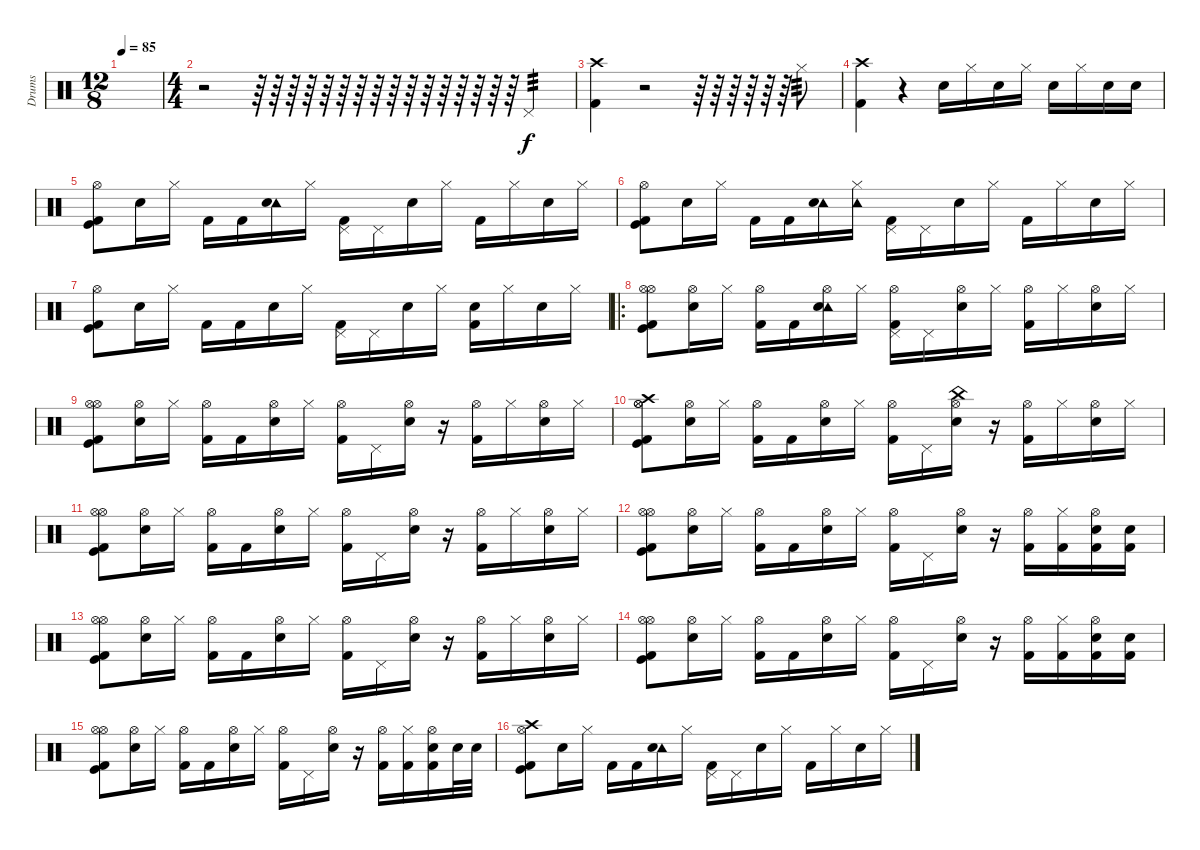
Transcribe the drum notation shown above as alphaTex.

\track ("Drums" "Drums") {instrument percussion}
\staff {score}
\articulation defaults
\ts (12 8)
\tempo 85
\clef neutral
\ks c
|
\ts (4 4)
r.2 r.64 r.64 r.64 r.64 r.64 r.64 r.64 r.64 r.64 r.64 r.64 r.64 r.64 r.64 r.64 r.64 "Pedal Hi-Hat (hit)".4{tp 3} |
("Crash high (hit)" "Kick (hit) 2").4 r.2 r.64 r.64 r.64 r.64 r.64 r.64 "Hi-Hat (closed)".8{tp 3} |
("Crash high (hit)" "Kick (hit) 2").4 r.4 "Snare (hit) 2".16 "Hi-Hat (closed)".16 "Snare (hit) 2".16 "Hi-Hat (closed)".16 "Snare (hit) 2".16 "Hi-Hat (closed)".16 "Snare (hit) 2".16 "Snare (hit) 2".16 |
("Hi-Hat (open)" "Kick (hit) 2" "Kick (hit)").8 "Snare (hit) 2".16 "Hi-Hat (closed)".16 "Kick (hit) 2".16 "Kick (hit) 2".16 ("Tambourine (hit)" "Snare (hit) 2").16 "Hi-Hat (closed)".16 ("Pedal Hi-Hat (hit)" "Kick (hit) 2").16 "Pedal Hi-Hat (hit)".16 "Snare (hit) 2".16 "Hi-Hat (closed)".16 "Kick (hit) 2".16 "Hi-Hat (closed)".16 "Snare (hit) 2".16 "Hi-Hat (closed)".16 |
("Hi-Hat (open)" "Kick (hit) 2" "Kick (hit)").8 "Snare (hit) 2".16 "Hi-Hat (closed)".16 "Kick (hit) 2".16 "Kick (hit) 2".16 ("Tambourine (hit)" "Snare (hit) 2").16 ("Tambourine (hit)" "Hi-Hat (closed)").16 ("Pedal Hi-Hat (hit)" "Kick (hit) 2").16 "Pedal Hi-Hat (hit)".16 "Snare (hit) 2".16 "Hi-Hat (closed)".16 "Kick (hit) 2".16 "Hi-Hat (closed)".16 "Snare (hit) 2".16 "Hi-Hat (closed)".16 |
("Hi-Hat (open)" "Kick (hit) 2" "Kick (hit)").8 "Snare (hit) 2".16 "Hi-Hat (closed)".16 "Kick (hit) 2".16 "Kick (hit) 2".16 "Snare (hit) 2".16 "Hi-Hat (closed)".16 ("Pedal Hi-Hat (hit)" "Kick (hit) 2").16 "Pedal Hi-Hat (hit)".16 "Snare (hit) 2".16 "Hi-Hat (closed)".16 ("Snare (hit) 2" "Kick (hit) 2").16 "Hi-Hat (closed)".16 "Snare (hit) 2".16 "Hi-Hat (closed)".16 |
\ro
("Hi-Hat (open)" "Hi-Hat (open)" "Kick (hit) 2" "Kick (hit)").8 ("Hi-Hat (open)" "Snare (hit) 2").16 "Hi-Hat (closed)".16 ("Hi-Hat (open)" "Kick (hit) 2").16 "Kick (hit) 2".16 ("Hi-Hat (open)" "Tambourine (hit)" "Snare (hit) 2").16 "Hi-Hat (closed)".16 ("Hi-Hat (open)" "Pedal Hi-Hat (hit)" "Kick (hit) 2").16 "Pedal Hi-Hat (hit)".16 ("Hi-Hat (open)" "Snare (hit) 2").16 "Hi-Hat (closed)".16 ("Hi-Hat (open)" "Kick (hit) 2").16 "Hi-Hat (closed)".16 ("Hi-Hat (open)" "Snare (hit) 2").16 "Hi-Hat (closed)".16 |
("Hi-Hat (open)" "Hi-Hat (open)" "Kick (hit) 2" "Kick (hit)").8 ("Hi-Hat (open)" "Snare (hit) 2").16 "Hi-Hat (closed)".16 ("Hi-Hat (open)" "Kick (hit) 2").16 "Kick (hit) 2".16 ("Hi-Hat (open)" "Snare (hit) 2").16 "Hi-Hat (closed)".16 ("Hi-Hat (open)" "Kick (hit) 2").16 "Pedal Hi-Hat (hit)".16 ("Hi-Hat (open)" "Snare (hit) 2").16 r.16 ("Hi-Hat (open)" "Kick (hit) 2").16 "Hi-Hat (closed)".16 ("Hi-Hat (open)" "Snare (hit) 2").16 "Hi-Hat (closed)".16 |
("Hi-Hat (open)" "Crash high (hit)" "Hi-Hat (open)" "Kick (hit) 2" "Kick (hit)").8 ("Hi-Hat (open)" "Snare (hit) 2").16 "Hi-Hat (closed)".16 ("Hi-Hat (open)" "Kick (hit) 2").16 "Kick (hit) 2".16 ("Hi-Hat (open)" "Snare (hit) 2").16 "Hi-Hat (closed)".16 ("Hi-Hat (open)" "Kick (hit) 2").16 "Pedal Hi-Hat (hit)".16 ("Hi-Hat (open)" "China (hit)" "Snare (hit) 2").16 r.16 ("Hi-Hat (open)" "Kick (hit) 2").16 "Hi-Hat (closed)".16 ("Hi-Hat (open)" "Snare (hit) 2").16 "Hi-Hat (closed)".16 |
("Hi-Hat (open)" "Hi-Hat (open)" "Kick (hit) 2" "Kick (hit)").8 ("Hi-Hat (open)" "Snare (hit) 2").16 "Hi-Hat (closed)".16 ("Hi-Hat (open)" "Kick (hit) 2").16 "Kick (hit) 2".16 ("Hi-Hat (open)" "Snare (hit) 2").16 "Hi-Hat (closed)".16 ("Hi-Hat (open)" "Kick (hit) 2").16 "Pedal Hi-Hat (hit)".16 ("Hi-Hat (open)" "Snare (hit) 2").16 r.16 ("Hi-Hat (open)" "Kick (hit) 2").16 "Hi-Hat (closed)".16 ("Hi-Hat (open)" "Snare (hit) 2").16 "Hi-Hat (closed)".16 |
("Hi-Hat (open)" "Hi-Hat (open)" "Kick (hit) 2" "Kick (hit)").8 ("Hi-Hat (open)" "Snare (hit) 2").16 "Hi-Hat (closed)".16 ("Hi-Hat (open)" "Kick (hit) 2").16 "Kick (hit) 2".16 ("Hi-Hat (open)" "Snare (hit) 2").16 "Hi-Hat (closed)".16 ("Hi-Hat (open)" "Kick (hit) 2").16 "Pedal Hi-Hat (hit)".16 ("Hi-Hat (open)" "Snare (hit) 2").16 r.16 ("Hi-Hat (open)" "Kick (hit) 2").16 ("Hi-Hat (closed)" "Kick (hit) 2").16 ("Hi-Hat (open)" "Snare (hit) 2" "Kick (hit) 2").16 ("Snare (hit) 2" "Kick (hit) 2").16 |
("Hi-Hat (open)" "Hi-Hat (open)" "Kick (hit) 2" "Kick (hit)").8 ("Hi-Hat (open)" "Snare (hit) 2").16 "Hi-Hat (closed)".16 ("Hi-Hat (open)" "Kick (hit) 2").16 "Kick (hit) 2".16 ("Hi-Hat (open)" "Snare (hit) 2").16 "Hi-Hat (closed)".16 ("Hi-Hat (open)" "Kick (hit) 2").16 "Pedal Hi-Hat (hit)".16 ("Hi-Hat (open)" "Snare (hit) 2").16 r.16 ("Hi-Hat (open)" "Kick (hit) 2").16 "Hi-Hat (closed)".16 ("Hi-Hat (open)" "Snare (hit) 2").16 "Hi-Hat (closed)".16 |
("Hi-Hat (open)" "Hi-Hat (open)" "Kick (hit) 2" "Kick (hit)").8 ("Hi-Hat (open)" "Snare (hit) 2").16 "Hi-Hat (closed)".16 ("Hi-Hat (open)" "Kick (hit) 2").16 "Kick (hit) 2".16 ("Hi-Hat (open)" "Snare (hit) 2").16 "Hi-Hat (closed)".16 ("Hi-Hat (open)" "Kick (hit) 2").16 "Pedal Hi-Hat (hit)".16 ("Hi-Hat (open)" "Snare (hit) 2").16 r.16 ("Hi-Hat (open)" "Kick (hit) 2").16 ("Hi-Hat (closed)" "Kick (hit) 2").16 ("Hi-Hat (open)" "Snare (hit) 2" "Kick (hit) 2").16 ("Snare (hit) 2" "Kick (hit) 2").16 |
("Hi-Hat (open)" "Hi-Hat (open)" "Kick (hit) 2" "Kick (hit)").8 ("Hi-Hat (open)" "Snare (hit) 2").16 "Hi-Hat (closed)".16 ("Hi-Hat (open)" "Kick (hit) 2").16 "Kick (hit) 2".16 ("Hi-Hat (open)" "Snare (hit) 2").16 "Hi-Hat (closed)".16 ("Hi-Hat (open)" "Kick (hit) 2").16 "Pedal Hi-Hat (hit)".16 ("Hi-Hat (open)" "Snare (hit) 2").16 r.16 ("Hi-Hat (open)" "Kick (hit) 2").16 ("Hi-Hat (closed)" "Kick (hit) 2").16 ("Hi-Hat (open)" "Snare (hit) 2" "Kick (hit) 2").16 "Snare (hit) 2".32 "Snare (hit) 2".32 |
("Crash high (hit)" "Hi-Hat (open)" "Kick (hit) 2" "Kick (hit)").8 "Snare (hit) 2".16 "Hi-Hat (closed)".16 "Kick (hit) 2".16 "Kick (hit) 2".16 ("Tambourine (hit)" "Snare (hit) 2").16 "Hi-Hat (closed)".16 ("Pedal Hi-Hat (hit)" "Kick (hit) 2").16 "Pedal Hi-Hat (hit)".16 "Snare (hit) 2".16 "Hi-Hat (closed)".16 "Kick (hit) 2".16 "Hi-Hat (closed)".16 "Snare (hit) 2".16 "Hi-Hat (closed)".16
